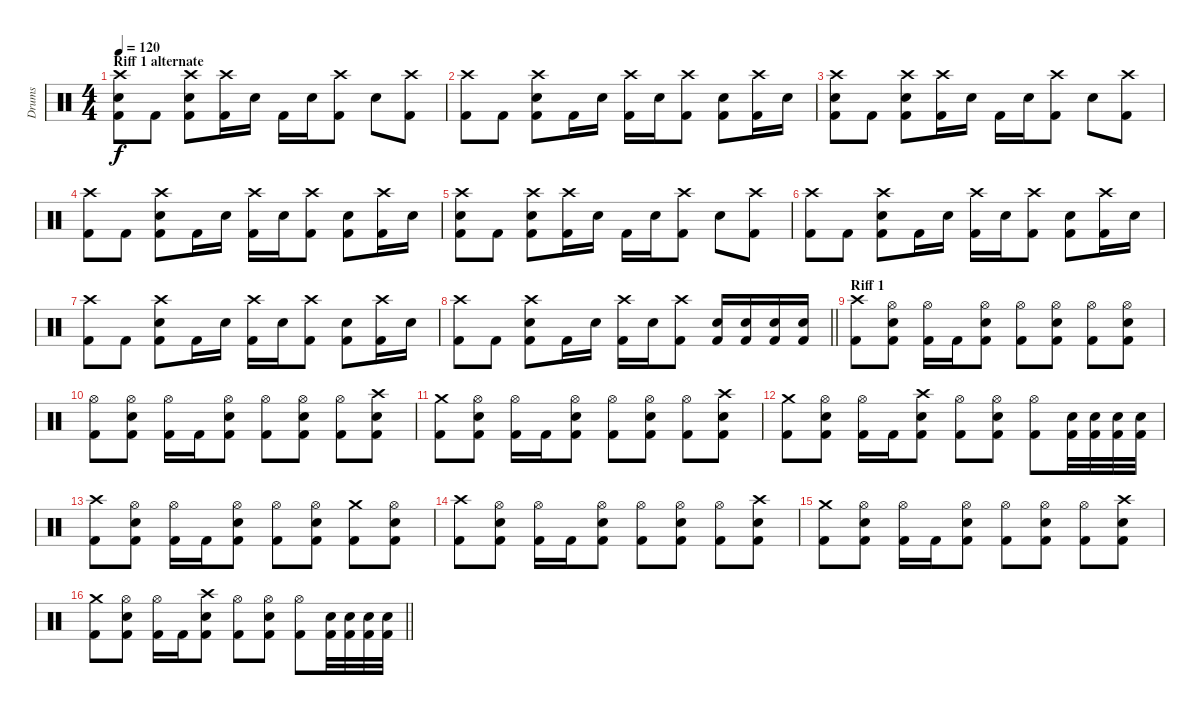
\track ("Drums" "Drums") {instrument percussion}
\staff {score}
\articulation defaults
\ts (4 4)
\section ("" "Riff 1 alternate")
\tempo 120
\clef neutral
\ks c
("Crash high (hit)" "Electric Snare (hit)" "Kick (hit) 2").8{dy f} "Kick (hit) 2".8 ("Crash high (hit)" "Electric Snare (hit)" "Kick (hit) 2").8 ("Crash high (hit)" "Kick (hit) 2").16 "Electric Snare (hit)".16 "Kick (hit) 2".16 "Electric Snare (hit)".16 ("Crash high (hit)" "Kick (hit) 2").8 "Electric Snare (hit)".8 ("Crash high (hit)" "Kick (hit) 2").8 |
("Crash high (hit)" "Kick (hit) 2").8 "Kick (hit) 2".8 ("Crash high (hit)" "Electric Snare (hit)" "Kick (hit) 2").8 "Kick (hit) 2".16 "Electric Snare (hit)".16 ("Crash high (hit)" "Kick (hit) 2").16 "Electric Snare (hit)".16 ("Crash high (hit)" "Kick (hit) 2").8 ("Electric Snare (hit)" "Kick (hit) 2").8 ("Crash high (hit)" "Kick (hit) 2").16 "Electric Snare (hit)".16 |
("Crash high (hit)" "Electric Snare (hit)" "Kick (hit) 2").8 "Kick (hit) 2".8 ("Crash high (hit)" "Electric Snare (hit)" "Kick (hit) 2").8 ("Crash high (hit)" "Kick (hit) 2").16 "Electric Snare (hit)".16 "Kick (hit) 2".16 "Electric Snare (hit)".16 ("Crash high (hit)" "Kick (hit) 2").8 "Electric Snare (hit)".8 ("Crash high (hit)" "Kick (hit) 2").8 |
("Crash high (hit)" "Kick (hit) 2").8 "Kick (hit) 2".8 ("Crash high (hit)" "Electric Snare (hit)" "Kick (hit) 2").8 "Kick (hit) 2".16 "Electric Snare (hit)".16 ("Crash high (hit)" "Kick (hit) 2").16 "Electric Snare (hit)".16 ("Crash high (hit)" "Kick (hit) 2").8 ("Electric Snare (hit)" "Kick (hit) 2").8 ("Crash high (hit)" "Kick (hit) 2").16 "Electric Snare (hit)".16 |
("Crash high (hit)" "Electric Snare (hit)" "Kick (hit) 2").8 "Kick (hit) 2".8 ("Crash high (hit)" "Electric Snare (hit)" "Kick (hit) 2").8 ("Crash high (hit)" "Kick (hit) 2").16 "Electric Snare (hit)".16 "Kick (hit) 2".16 "Electric Snare (hit)".16 ("Crash high (hit)" "Kick (hit) 2").8 "Electric Snare (hit)".8 ("Crash high (hit)" "Kick (hit) 2").8 |
("Crash high (hit)" "Kick (hit) 2").8 "Kick (hit) 2".8 ("Crash high (hit)" "Electric Snare (hit)" "Kick (hit) 2").8 "Kick (hit) 2".16 "Electric Snare (hit)".16 ("Crash high (hit)" "Kick (hit) 2").16 "Electric Snare (hit)".16 ("Crash high (hit)" "Kick (hit) 2").8 ("Electric Snare (hit)" "Kick (hit) 2").8 ("Crash high (hit)" "Kick (hit) 2").16 "Electric Snare (hit)".16 |
("Crash high (hit)" "Kick (hit) 2").8 "Kick (hit) 2".8 ("Crash high (hit)" "Electric Snare (hit)" "Kick (hit) 2").8 "Kick (hit) 2".16 "Electric Snare (hit)".16 ("Crash high (hit)" "Kick (hit) 2").16 "Electric Snare (hit)".16 ("Crash high (hit)" "Kick (hit) 2").8 ("Electric Snare (hit)" "Kick (hit) 2").8 ("Crash high (hit)" "Kick (hit) 2").16 "Electric Snare (hit)".16 |
\barLineRight lightlight
("Crash high (hit)" "Kick (hit) 2").8 "Kick (hit) 2".8 ("Crash high (hit)" "Electric Snare (hit)" "Kick (hit) 2").8 "Kick (hit) 2".16 "Electric Snare (hit)".16 ("Crash high (hit)" "Kick (hit) 2").16 "Electric Snare (hit)".16 ("Crash high (hit)" "Kick (hit) 2").8 ("Electric Snare (hit)" "Kick (hit) 2").16 ("Electric Snare (hit)" "Kick (hit) 2").16 ("Electric Snare (hit)" "Kick (hit) 2").16 ("Electric Snare (hit)" "Kick (hit) 2").16 |
\section ("" "Riff 1")
("Crash high (hit)" "Kick (hit) 2").8 ("Hi-Hat (open)" "Electric Snare (hit)" "Kick (hit) 2").8 ("Hi-Hat (open)" "Kick (hit) 2").16 "Kick (hit) 2".16 ("Hi-Hat (open)" "Electric Snare (hit)" "Kick (hit) 2").8 ("Hi-Hat (open)" "Kick (hit) 2").8 ("Hi-Hat (open)" "Electric Snare (hit)" "Kick (hit) 2").8 ("Hi-Hat (open)" "Kick (hit) 2").8 ("Hi-Hat (open)" "Electric Snare (hit)" "Kick (hit) 2").8 |
("Hi-Hat (open)" "Kick (hit) 2").8 ("Hi-Hat (open)" "Electric Snare (hit)" "Kick (hit) 2").8 ("Hi-Hat (open)" "Kick (hit) 2").16 "Kick (hit) 2".16 ("Hi-Hat (open)" "Electric Snare (hit)" "Kick (hit) 2").8 ("Hi-Hat (open)" "Kick (hit) 2").8 ("Hi-Hat (open)" "Electric Snare (hit)" "Kick (hit) 2").8 ("Hi-Hat (open)" "Kick (hit) 2").8 ("Crash high (hit)" "Electric Snare (hit)" "Kick (hit) 2").8 |
("Crash medium (hit)" "Kick (hit) 2").8 ("Hi-Hat (open)" "Electric Snare (hit)" "Kick (hit) 2").8 ("Hi-Hat (open)" "Kick (hit) 2").16 "Kick (hit) 2".16 ("Hi-Hat (open)" "Electric Snare (hit)" "Kick (hit) 2").8 ("Hi-Hat (open)" "Kick (hit) 2").8 ("Hi-Hat (open)" "Electric Snare (hit)" "Kick (hit) 2").8 ("Hi-Hat (open)" "Kick (hit) 2").8 ("Crash high (hit)" "Electric Snare (hit)" "Kick (hit) 2").8 |
("Crash medium (hit)" "Kick (hit) 2").8 ("Hi-Hat (open)" "Electric Snare (hit)" "Kick (hit) 2").8 ("Hi-Hat (open)" "Kick (hit) 2").16 "Kick (hit) 2".16 ("Crash high (hit)" "Electric Snare (hit)" "Kick (hit) 2").8 ("Hi-Hat (open)" "Kick (hit) 2").8 ("Hi-Hat (open)" "Electric Snare (hit)" "Kick (hit) 2").8 ("Hi-Hat (open)" "Kick (hit) 2").8 ("Electric Snare (hit)" "Kick (hit) 2").32 ("Electric Snare (hit)" "Kick (hit) 2").32 ("Electric Snare (hit)" "Kick (hit) 2").32 ("Electric Snare (hit)" "Kick (hit) 2").32 |
("Crash high (hit)" "Kick (hit) 2").8 ("Hi-Hat (open)" "Electric Snare (hit)" "Kick (hit) 2").8 ("Hi-Hat (open)" "Kick (hit) 2").16 "Kick (hit) 2".16 ("Hi-Hat (open)" "Electric Snare (hit)" "Kick (hit) 2").8 ("Hi-Hat (open)" "Kick (hit) 2").8 ("Hi-Hat (open)" "Electric Snare (hit)" "Kick (hit) 2").8 ("Crash medium (hit)" "Kick (hit) 2").8 ("Hi-Hat (open)" "Electric Snare (hit)" "Kick (hit) 2").8 |
("Crash high (hit)" "Kick (hit) 2").8 ("Hi-Hat (open)" "Electric Snare (hit)" "Kick (hit) 2").8 ("Hi-Hat (open)" "Kick (hit) 2").16 "Kick (hit) 2".16 ("Hi-Hat (open)" "Electric Snare (hit)" "Kick (hit) 2").8 ("Hi-Hat (open)" "Kick (hit) 2").8 ("Hi-Hat (open)" "Electric Snare (hit)" "Kick (hit) 2").8 ("Hi-Hat (open)" "Kick (hit) 2").8 ("Crash high (hit)" "Electric Snare (hit)" "Kick (hit) 2").8 |
("Crash medium (hit)" "Kick (hit) 2").8 ("Hi-Hat (open)" "Electric Snare (hit)" "Kick (hit) 2").8 ("Hi-Hat (open)" "Kick (hit) 2").16 "Kick (hit) 2".16 ("Hi-Hat (open)" "Electric Snare (hit)" "Kick (hit) 2").8 ("Hi-Hat (open)" "Kick (hit) 2").8 ("Hi-Hat (open)" "Electric Snare (hit)" "Kick (hit) 2").8 ("Hi-Hat (open)" "Kick (hit) 2").8 ("Crash high (hit)" "Electric Snare (hit)" "Kick (hit) 2").8 |
\barLineRight lightlight
("Crash medium (hit)" "Kick (hit) 2").8 ("Hi-Hat (open)" "Electric Snare (hit)" "Kick (hit) 2").8 ("Hi-Hat (open)" "Kick (hit) 2").16 "Kick (hit) 2".16 ("Crash high (hit)" "Electric Snare (hit)" "Kick (hit) 2").8 ("Hi-Hat (open)" "Kick (hit) 2").8 ("Hi-Hat (open)" "Electric Snare (hit)" "Kick (hit) 2").8 ("Hi-Hat (open)" "Kick (hit) 2").8 ("Electric Snare (hit)" "Kick (hit) 2").32 ("Electric Snare (hit)" "Kick (hit) 2").32 ("Electric Snare (hit)" "Kick (hit) 2").32 ("Electric Snare (hit)" "Kick (hit) 2").32
